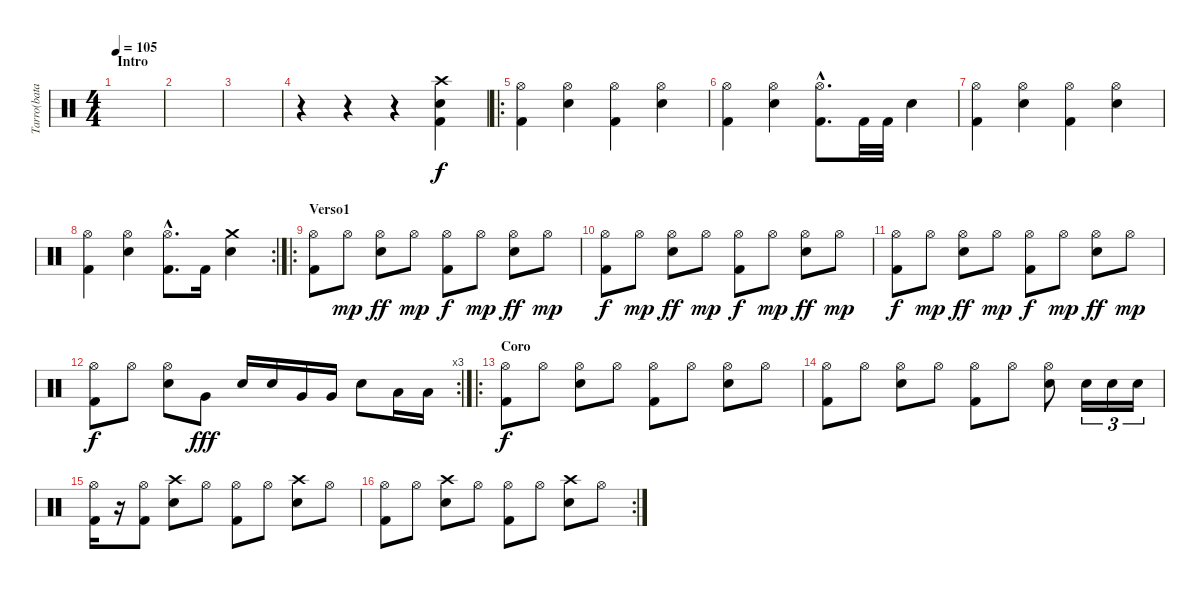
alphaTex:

\track ("Tarro(bataca)" "Tarro(bata") {instrument percussion}
\staff {score}
\articulation defaults
\ts (4 4)
\section ("" "Intro")
\tempo 105
\clef neutral
\ks c
|
|
|
r.4 r.4 r.4 ("Crash high (hit)" "Snare (hit) 2" "Kick (hit) 2").4 |
\ro
("Hi-Hat (open)" "Kick (hit) 2").4 ("Hi-Hat (open)" "Snare (hit) 2").4 ("Hi-Hat (open)" "Kick (hit) 2").4 ("Hi-Hat (open)" "Snare (hit) 2").4 |
("Hi-Hat (open)" "Kick (hit) 2").4 ("Hi-Hat (open)" "Snare (hit) 2").4 ("Hi-Hat (open)"{hac} "Kick (hit) 2"{hac}).8{d} "Kick (hit) 2".32 "Kick (hit) 2".32 "Snare (hit) 2".4 |
("Hi-Hat (open)" "Kick (hit) 2").4 ("Hi-Hat (open)" "Snare (hit) 2").4 ("Hi-Hat (open)" "Kick (hit) 2").4 ("Hi-Hat (open)" "Snare (hit) 2").4 |
\rc 2
("Hi-Hat (open)" "Kick (hit) 2").4 ("Hi-Hat (open)" "Snare (hit) 2").4 ("Hi-Hat (open)"{hac} "Kick (hit) 2"{hac}).8{d} "Kick (hit) 2".16 ("Crash medium (hit)" "Snare (hit) 2").4 |
\ro
\section ("" "Verso1")
("Hi-Hat (open)" "Kick (hit) 2").8 "Hi-Hat (open)".8{dy mp} ("Hi-Hat (open)" "Snare (hit) 2").8{dy ff} "Hi-Hat (open)".8{dy mp} ("Hi-Hat (open)" "Kick (hit) 2").8{dy f} "Hi-Hat (open)".8{dy mp} ("Hi-Hat (open)" "Snare (hit) 2").8{dy ff} "Hi-Hat (open)".8{dy mp} |
("Hi-Hat (open)" "Kick (hit) 2").8{dy f} "Hi-Hat (open)".8{dy mp} ("Hi-Hat (open)" "Snare (hit) 2").8{dy ff} "Hi-Hat (open)".8{dy mp} ("Hi-Hat (open)" "Kick (hit) 2").8{dy f} "Hi-Hat (open)".8{dy mp} ("Hi-Hat (open)" "Snare (hit) 2").8{dy ff} "Hi-Hat (open)".8{dy mp} |
("Hi-Hat (open)" "Kick (hit) 2").8{dy f} "Hi-Hat (open)".8{dy mp} ("Hi-Hat (open)" "Snare (hit) 2").8{dy ff} "Hi-Hat (open)".8{dy mp} ("Hi-Hat (open)" "Kick (hit) 2").8{dy f} "Hi-Hat (open)".8{dy mp} ("Hi-Hat (open)" "Snare (hit) 2").8{dy ff} "Hi-Hat (open)".8{dy mp} |
\rc 3
("Hi-Hat (open)" "Kick (hit) 2").8{dy f} "Hi-Hat (open)".8 ("Hi-Hat (open)" "Snare (hit) 2").8 "Very Low Tom (hit)".8{dy fff} "Snare (hit) 2".16 "Snare (hit) 2".16 "Very Low Tom (hit)".16 "Very Low Tom (hit)".16 "Snare (hit) 2".8 "Low Floor Tom (hit)".16 "Low Floor Tom (hit)".16 |
\ro
\section ("" "Coro")
("Hi-Hat (open)" "Kick (hit) 2").8{dy f} "Hi-Hat (open)".8 ("Hi-Hat (open)" "Snare (hit) 2").8 "Hi-Hat (open)".8 ("Hi-Hat (open)" "Kick (hit) 2").8 "Hi-Hat (open)".8 ("Hi-Hat (open)" "Snare (hit) 2").8 "Hi-Hat (open)".8 |
("Hi-Hat (open)" "Kick (hit) 2").8 "Hi-Hat (open)".8 ("Hi-Hat (open)" "Snare (hit) 2").8 "Hi-Hat (open)".8 ("Hi-Hat (open)" "Kick (hit) 2").8 "Hi-Hat (open)".8 ("Hi-Hat (open)" "Snare (hit) 2").8 "Snare (hit) 2".16{tu (3 2)} "Snare (hit) 2".16{tu (3 2)} "Snare (hit) 2".16{tu (3 2)} |
("Hi-Hat (open)" "Kick (hit) 2").16 r.16 ("Hi-Hat (open)" "Kick (hit) 2").8 ("Crash high (hit)" "Snare (hit) 2").8 "Hi-Hat (open)".8 ("Hi-Hat (open)" "Kick (hit) 2").8 "Hi-Hat (open)".8 ("Crash high (hit)" "Snare (hit) 2").8 "Hi-Hat (open)".8 |
\rc 2
("Hi-Hat (open)" "Kick (hit) 2").8 "Hi-Hat (open)".8 ("Crash high (hit)" "Snare (hit) 2").8 "Hi-Hat (open)".8 ("Hi-Hat (open)" "Kick (hit) 2").8 "Hi-Hat (open)".8 ("Crash high (hit)" "Snare (hit) 2").8 "Hi-Hat (open)".8
